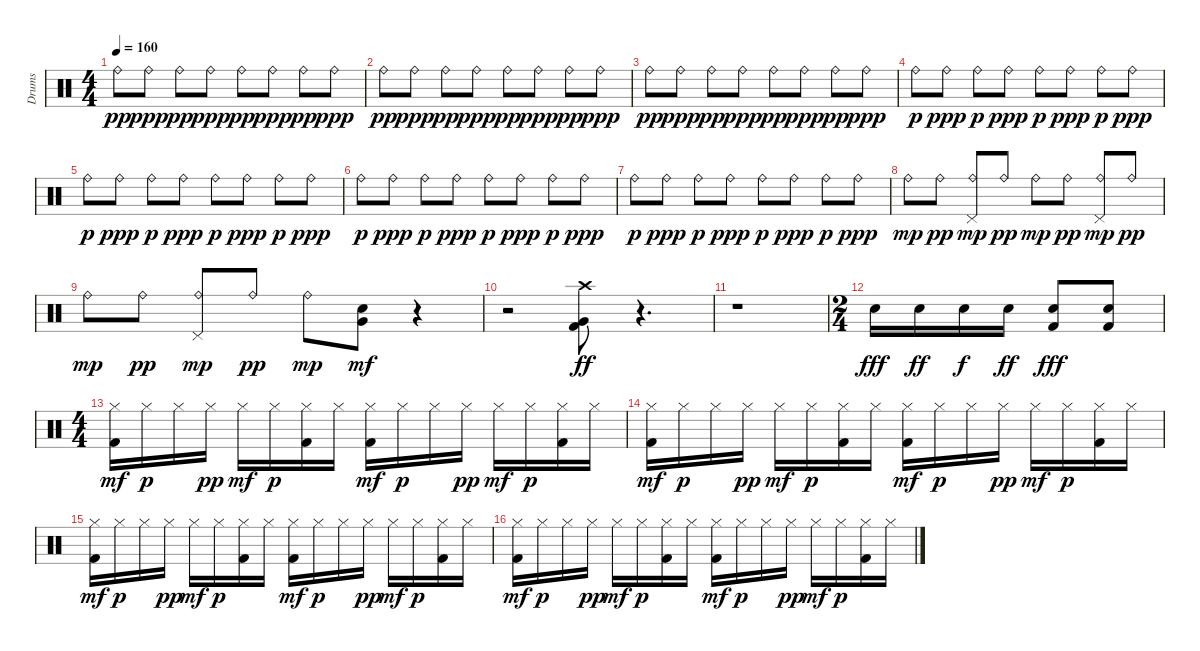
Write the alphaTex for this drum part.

\track ("Drums" "Drums") {instrument percussion}
\staff {score}
\articulation defaults
\ts (4 4)
\tempo 160
\clef neutral
\ks c "Ride (bell)".8{dy pp} "Ride (bell)".8{dy ppp} "Ride (bell)".8{dy pp} "Ride (bell)".8{dy ppp} "Ride (bell)".8{dy pp} "Ride (bell)".8{dy ppp} "Ride (bell)".8{dy pp} "Ride (bell)".8{dy ppp}
|
"Ride (bell)".8{dy pp} "Ride (bell)".8{dy ppp} "Ride (bell)".8{dy pp} "Ride (bell)".8{dy ppp} "Ride (bell)".8{dy pp} "Ride (bell)".8{dy ppp} "Ride (bell)".8{dy pp} "Ride (bell)".8{dy ppp} |
"Ride (bell)".8{dy pp} "Ride (bell)".8{dy ppp} "Ride (bell)".8{dy pp} "Ride (bell)".8{dy ppp} "Ride (bell)".8{dy pp} "Ride (bell)".8{dy ppp} "Ride (bell)".8{dy pp} "Ride (bell)".8{dy ppp} |
"Ride (bell)".8{dy p} "Ride (bell)".8{dy ppp} "Ride (bell)".8{dy p} "Ride (bell)".8{dy ppp} "Ride (bell)".8{dy p} "Ride (bell)".8{dy ppp} "Ride (bell)".8{dy p} "Ride (bell)".8{dy ppp} |
"Ride (bell)".8{dy p} "Ride (bell)".8{dy ppp} "Ride (bell)".8{dy p} "Ride (bell)".8{dy ppp} "Ride (bell)".8{dy p} "Ride (bell)".8{dy ppp} "Ride (bell)".8{dy p} "Ride (bell)".8{dy ppp} |
"Ride (bell)".8{dy p} "Ride (bell)".8{dy ppp} "Ride (bell)".8{dy p} "Ride (bell)".8{dy ppp} "Ride (bell)".8{dy p} "Ride (bell)".8{dy ppp} "Ride (bell)".8{dy p} "Ride (bell)".8{dy ppp} |
"Ride (bell)".8{dy p} "Ride (bell)".8{dy ppp} "Ride (bell)".8{dy p} "Ride (bell)".8{dy ppp} "Ride (bell)".8{dy p} "Ride (bell)".8{dy ppp} "Ride (bell)".8{dy p} "Ride (bell)".8{dy ppp} |
"Ride (bell)".8{dy mp} "Ride (bell)".8{dy pp} ("Pedal Hi-Hat (hit)" "Ride (bell)").8{dy mp} "Ride (bell)".8{dy pp} "Ride (bell)".8{dy mp} "Ride (bell)".8{dy pp} ("Pedal Hi-Hat (hit)" "Ride (bell)").8{dy mp} "Ride (bell)".8{dy pp} |
"Ride (bell)".8{dy mp} "Ride (bell)".8{dy pp} ("Pedal Hi-Hat (hit)" "Ride (bell)").8{dy mp} "Ride (bell)".8{dy pp} "Ride (bell)".8{dy mp} ("Snare (hit) 2" "Very Low Tom (hit)").8{dy mf} r.4 |
r.2 ("Kick (hit) 2" "Very Low Tom (hit)" "Crash high (hit)").8{dy ff} r.4{d} |
r.1 |
\ts (2 4)
"Snare (hit) 2".16{dy fff} "Snare (hit) 2".16{dy ff} "Snare (hit) 2".16{dy f} "Snare (hit) 2".16{dy ff} ("Kick (hit) 2" "Snare (hit) 2").8{dy fff} ("Kick (hit) 2" "Snare (hit) 2").8 |
\ts (4 4)
("Kick (hit) 2" "Hi-Hat (closed)").16{dy mf} "Hi-Hat (closed)".16{dy p} "Hi-Hat (closed)".16 "Hi-Hat (closed)".16{dy pp} "Hi-Hat (closed)".16{dy mf} "Hi-Hat (closed)".16{dy p} ("Kick (hit) 2" "Hi-Hat (closed)").16 "Hi-Hat (closed)".16 ("Kick (hit) 2" "Hi-Hat (closed)").16{dy mf} "Hi-Hat (closed)".16{dy p} "Hi-Hat (closed)".16 "Hi-Hat (closed)".16{dy pp} "Hi-Hat (closed)".16{dy mf} "Hi-Hat (closed)".16{dy p} ("Kick (hit) 2" "Hi-Hat (closed)").16 "Hi-Hat (closed)".16 |
("Kick (hit) 2" "Hi-Hat (closed)").16{dy mf} "Hi-Hat (closed)".16{dy p} "Hi-Hat (closed)".16 "Hi-Hat (closed)".16{dy pp} "Hi-Hat (closed)".16{dy mf} "Hi-Hat (closed)".16{dy p} ("Kick (hit) 2" "Hi-Hat (closed)").16 "Hi-Hat (closed)".16 ("Kick (hit) 2" "Hi-Hat (closed)").16{dy mf} "Hi-Hat (closed)".16{dy p} "Hi-Hat (closed)".16 "Hi-Hat (closed)".16{dy pp} "Hi-Hat (closed)".16{dy mf} "Hi-Hat (closed)".16{dy p} ("Kick (hit) 2" "Hi-Hat (closed)").16 "Hi-Hat (closed)".16 |
("Kick (hit) 2" "Hi-Hat (closed)").16{dy mf} "Hi-Hat (closed)".16{dy p} "Hi-Hat (closed)".16 "Hi-Hat (closed)".16{dy pp} "Hi-Hat (closed)".16{dy mf} "Hi-Hat (closed)".16{dy p} ("Kick (hit) 2" "Hi-Hat (closed)").16 "Hi-Hat (closed)".16 ("Kick (hit) 2" "Hi-Hat (closed)").16{dy mf} "Hi-Hat (closed)".16{dy p} "Hi-Hat (closed)".16 "Hi-Hat (closed)".16{dy pp} "Hi-Hat (closed)".16{dy mf} "Hi-Hat (closed)".16{dy p} ("Kick (hit) 2" "Hi-Hat (closed)").16 "Hi-Hat (closed)".16 |
("Kick (hit) 2" "Hi-Hat (closed)").16{dy mf} "Hi-Hat (closed)".16{dy p} "Hi-Hat (closed)".16 "Hi-Hat (closed)".16{dy pp} "Hi-Hat (closed)".16{dy mf} "Hi-Hat (closed)".16{dy p} ("Kick (hit) 2" "Hi-Hat (closed)").16 "Hi-Hat (closed)".16 ("Kick (hit) 2" "Hi-Hat (closed)").16{dy mf} "Hi-Hat (closed)".16{dy p} "Hi-Hat (closed)".16 "Hi-Hat (closed)".16{dy pp} "Hi-Hat (closed)".16{dy mf} "Hi-Hat (closed)".16{dy p} ("Kick (hit) 2" "Hi-Hat (closed)").16 "Hi-Hat (closed)".16
